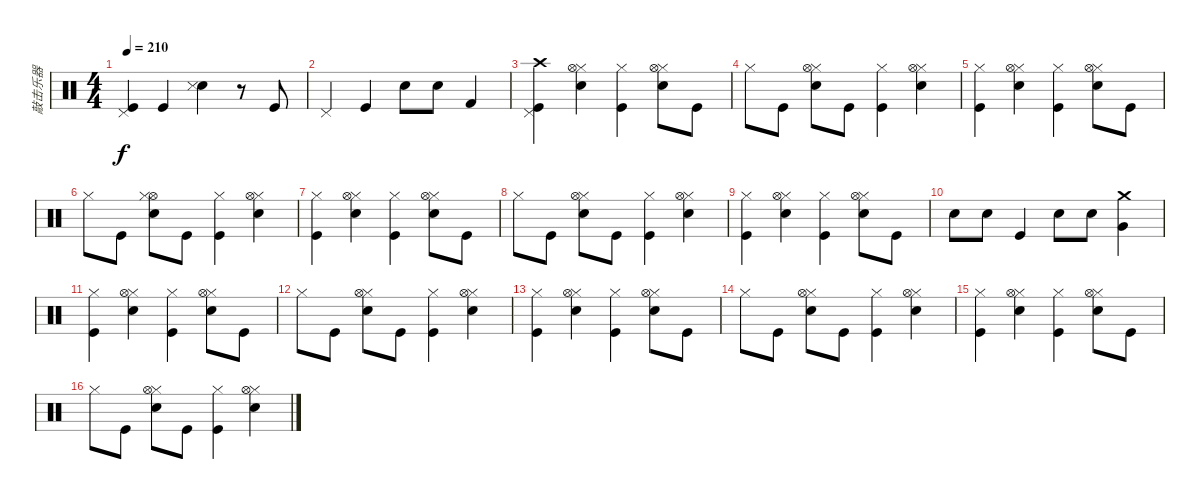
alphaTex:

\track ("敲击乐器" "敲击乐器") {instrument percussion}
\staff {score}
\articulation defaults
\ts (4 4)
\tempo 210
\clef neutral
\ks c
("Pedal Hi-Hat (hit)" "Kick (hit)").4{dy f} "Kick (hit)".4 ("Snare (hit) 2" "Snare (side stick) 3").4 r.8 "Kick (hit)".8 |
"Pedal Hi-Hat (hit)".4 "Kick (hit)".4 "Electric Snare (hit)".8{volume 11} "Electric Snare (hit)".8 "Kick (hit) 2".4 |
("Pedal Hi-Hat (hit)" "Crash high (hit)" "Kick (hit)").4 ("Hi-Hat (closed)" "Hi-Hat (open)" "Snare (hit) 2").4 ("Hi-Hat (closed)" "Kick (hit)").4 ("Hi-Hat (closed)" "Hi-Hat (open)" "Snare (hit) 2").8 "Kick (hit)".8 |
"Hi-Hat (closed)".8 "Kick (hit)".8 ("Hi-Hat (closed)" "Hi-Hat (open)" "Snare (hit) 2").8 "Kick (hit)".8 ("Kick (hit)" "Hi-Hat (closed)").4 ("Snare (hit) 2" "Hi-Hat (closed)" "Hi-Hat (open)").4 |
("Hi-Hat (closed)" "Kick (hit)").4 ("Hi-Hat (closed)" "Hi-Hat (open)" "Snare (hit) 2").4 ("Hi-Hat (closed)" "Kick (hit)").4 ("Hi-Hat (closed)" "Hi-Hat (open)" "Snare (hit) 2").8 "Kick (hit)".8 |
"Hi-Hat (closed)".8 "Kick (hit)".8 ("Hi-Hat (open)" "Hi-Hat (closed)" "Snare (hit) 2").8 "Kick (hit)".8 ("Kick (hit)" "Hi-Hat (closed)").4 ("Snare (hit) 2" "Hi-Hat (closed)" "Hi-Hat (open)").4 |
("Hi-Hat (closed)" "Kick (hit)").4 ("Hi-Hat (closed)" "Hi-Hat (open)" "Snare (hit) 2").4 ("Hi-Hat (closed)" "Kick (hit)").4 ("Hi-Hat (closed)" "Hi-Hat (open)" "Snare (hit) 2").8 "Kick (hit)".8 |
"Hi-Hat (closed)".8 "Kick (hit)".8 ("Hi-Hat (closed)" "Hi-Hat (open)" "Snare (hit) 2").8 "Kick (hit)".8 ("Kick (hit)" "Hi-Hat (closed)").4 ("Snare (hit) 2" "Hi-Hat (closed)" "Hi-Hat (open)").4 |
("Hi-Hat (closed)" "Kick (hit)").4 ("Hi-Hat (closed)" "Hi-Hat (open)" "Snare (hit) 2").4 ("Hi-Hat (closed)" "Kick (hit)").4 ("Hi-Hat (closed)" "Hi-Hat (open)" "Snare (hit) 2").8 "Kick (hit)".8 |
"Electric Snare (hit)".8 "Electric Snare (hit)".8 "Kick (hit)".4 "Snare (hit) 2".8 "Snare (hit) 2".8 ("Crash medium (hit)" "Very Low Tom (hit)").4 |
("Hi-Hat (closed)" "Kick (hit)").4 ("Hi-Hat (closed)" "Hi-Hat (open)" "Snare (hit) 2").4 ("Hi-Hat (closed)" "Kick (hit)").4 ("Hi-Hat (closed)" "Hi-Hat (open)" "Snare (hit) 2").8 "Kick (hit)".8 |
"Hi-Hat (closed)".8 "Kick (hit)".8 ("Hi-Hat (closed)" "Hi-Hat (open)" "Snare (hit) 2").8 "Kick (hit)".8 ("Kick (hit)" "Hi-Hat (closed)").4 ("Snare (hit) 2" "Hi-Hat (closed)" "Hi-Hat (open)").4 |
("Hi-Hat (closed)" "Kick (hit)").4 ("Hi-Hat (closed)" "Hi-Hat (open)" "Snare (hit) 2").4 ("Hi-Hat (closed)" "Kick (hit)").4 ("Hi-Hat (closed)" "Hi-Hat (open)" "Snare (hit) 2").8 "Kick (hit)".8 |
"Hi-Hat (closed)".8 "Kick (hit)".8 ("Hi-Hat (closed)" "Hi-Hat (open)" "Snare (hit) 2").8 "Kick (hit)".8 ("Kick (hit)" "Hi-Hat (closed)").4 ("Snare (hit) 2" "Hi-Hat (closed)" "Hi-Hat (open)").4 |
("Hi-Hat (closed)" "Kick (hit)").4 ("Hi-Hat (closed)" "Hi-Hat (open)" "Snare (hit) 2").4 ("Hi-Hat (closed)" "Kick (hit)").4 ("Hi-Hat (closed)" "Hi-Hat (open)" "Snare (hit) 2").8 "Kick (hit)".8 |
"Hi-Hat (closed)".8 "Kick (hit)".8 ("Hi-Hat (closed)" "Hi-Hat (open)" "Snare (hit) 2").8 "Kick (hit)".8 ("Kick (hit)" "Hi-Hat (closed)").4 ("Snare (hit) 2" "Hi-Hat (closed)" "Hi-Hat (open)").4
